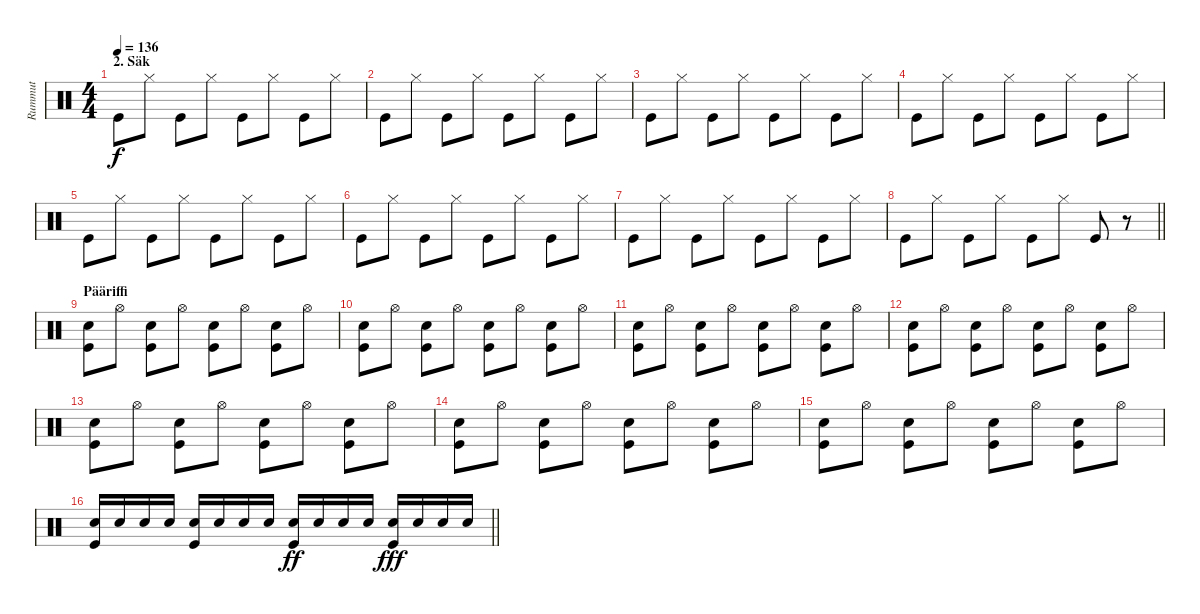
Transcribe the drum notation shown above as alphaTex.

\track ("Rummut" "Rummut") {instrument percussion}
\staff {score}
\articulation defaults
\ts (4 4)
\section ("" "2. Säk")
\tempo 136
\clef neutral
\ks c "Kick (hit)".8{dy f} "Hi-Hat (closed)".8 "Kick (hit)".8 "Hi-Hat (closed)".8 "Kick (hit)".8 "Hi-Hat (closed)".8 "Kick (hit)".8 "Hi-Hat (closed)".8
|
"Kick (hit)".8 "Hi-Hat (closed)".8 "Kick (hit)".8 "Hi-Hat (closed)".8 "Kick (hit)".8 "Hi-Hat (closed)".8 "Kick (hit)".8 "Hi-Hat (closed)".8 |
"Kick (hit)".8 "Hi-Hat (closed)".8 "Kick (hit)".8 "Hi-Hat (closed)".8 "Kick (hit)".8 "Hi-Hat (closed)".8 "Kick (hit)".8 "Hi-Hat (closed)".8 |
"Kick (hit)".8 "Hi-Hat (closed)".8 "Kick (hit)".8 "Hi-Hat (closed)".8 "Kick (hit)".8 "Hi-Hat (closed)".8 "Kick (hit)".8 "Hi-Hat (closed)".8 |
"Kick (hit)".8 "Hi-Hat (closed)".8 "Kick (hit)".8 "Hi-Hat (closed)".8 "Kick (hit)".8 "Hi-Hat (closed)".8 "Kick (hit)".8 "Hi-Hat (closed)".8 |
"Kick (hit)".8 "Hi-Hat (closed)".8 "Kick (hit)".8 "Hi-Hat (closed)".8 "Kick (hit)".8 "Hi-Hat (closed)".8 "Kick (hit)".8 "Hi-Hat (closed)".8 |
"Kick (hit)".8 "Hi-Hat (closed)".8 "Kick (hit)".8 "Hi-Hat (closed)".8 "Kick (hit)".8 "Hi-Hat (closed)".8 "Kick (hit)".8 "Hi-Hat (closed)".8 |
\barLineRight lightlight "Kick (hit)".8 "Hi-Hat (closed)".8 "Kick (hit)".8 "Hi-Hat (closed)".8 "Kick (hit)".8 "Hi-Hat (closed)".8 "Kick (hit)".8
r.8 |
\section ("" "Pääriffi")
("Electric Snare (hit)" "Kick (hit)").8 "Hi-Hat (open)".8 ("Electric Snare (hit)" "Kick (hit)").8 "Hi-Hat (open)".8 ("Electric Snare (hit)" "Kick (hit)").8 "Hi-Hat (open)".8 ("Electric Snare (hit)" "Kick (hit)").8 "Hi-Hat (open)".8 |
("Electric Snare (hit)" "Kick (hit)").8 "Hi-Hat (open)".8 ("Electric Snare (hit)" "Kick (hit)").8 "Hi-Hat (open)".8 ("Electric Snare (hit)" "Kick (hit)").8 "Hi-Hat (open)".8 ("Electric Snare (hit)" "Kick (hit)").8 "Hi-Hat (open)".8 |
("Electric Snare (hit)" "Kick (hit)").8 "Hi-Hat (open)".8 ("Electric Snare (hit)" "Kick (hit)").8 "Hi-Hat (open)".8 ("Electric Snare (hit)" "Kick (hit)").8 "Hi-Hat (open)".8 ("Electric Snare (hit)" "Kick (hit)").8 "Hi-Hat (open)".8 |
("Electric Snare (hit)" "Kick (hit)").8 "Hi-Hat (open)".8 ("Electric Snare (hit)" "Kick (hit)").8 "Hi-Hat (open)".8 ("Electric Snare (hit)" "Kick (hit)").8 "Hi-Hat (open)".8 ("Electric Snare (hit)" "Kick (hit)").8 "Hi-Hat (open)".8 |
("Electric Snare (hit)" "Kick (hit)").8 "Hi-Hat (open)".8 ("Electric Snare (hit)" "Kick (hit)").8 "Hi-Hat (open)".8 ("Electric Snare (hit)" "Kick (hit)").8 "Hi-Hat (open)".8 ("Electric Snare (hit)" "Kick (hit)").8 "Hi-Hat (open)".8 |
("Electric Snare (hit)" "Kick (hit)").8 "Hi-Hat (open)".8 ("Electric Snare (hit)" "Kick (hit)").8 "Hi-Hat (open)".8 ("Electric Snare (hit)" "Kick (hit)").8 "Hi-Hat (open)".8 ("Electric Snare (hit)" "Kick (hit)").8 "Hi-Hat (open)".8 |
("Electric Snare (hit)" "Kick (hit)").8 "Hi-Hat (open)".8 ("Electric Snare (hit)" "Kick (hit)").8 "Hi-Hat (open)".8 ("Electric Snare (hit)" "Kick (hit)").8 "Hi-Hat (open)".8 ("Electric Snare (hit)" "Kick (hit)").8 "Hi-Hat (open)".8 |
\barLineRight lightlight
("Electric Snare (hit)" "Kick (hit)").16 "Electric Snare (hit)".16 "Electric Snare (hit)".16 "Electric Snare (hit)".16 ("Electric Snare (hit)" "Kick (hit)").16 "Electric Snare (hit)".16 "Electric Snare (hit)".16 "Electric Snare (hit)".16 ("Electric Snare (hit)" "Kick (hit)").16{dy ff} "Electric Snare (hit)".16 "Electric Snare (hit)".16 "Electric Snare (hit)".16 ("Electric Snare (hit)" "Kick (hit)").16{dy fff} "Electric Snare (hit)".16 "Electric Snare (hit)".16 "Electric Snare (hit)".16
